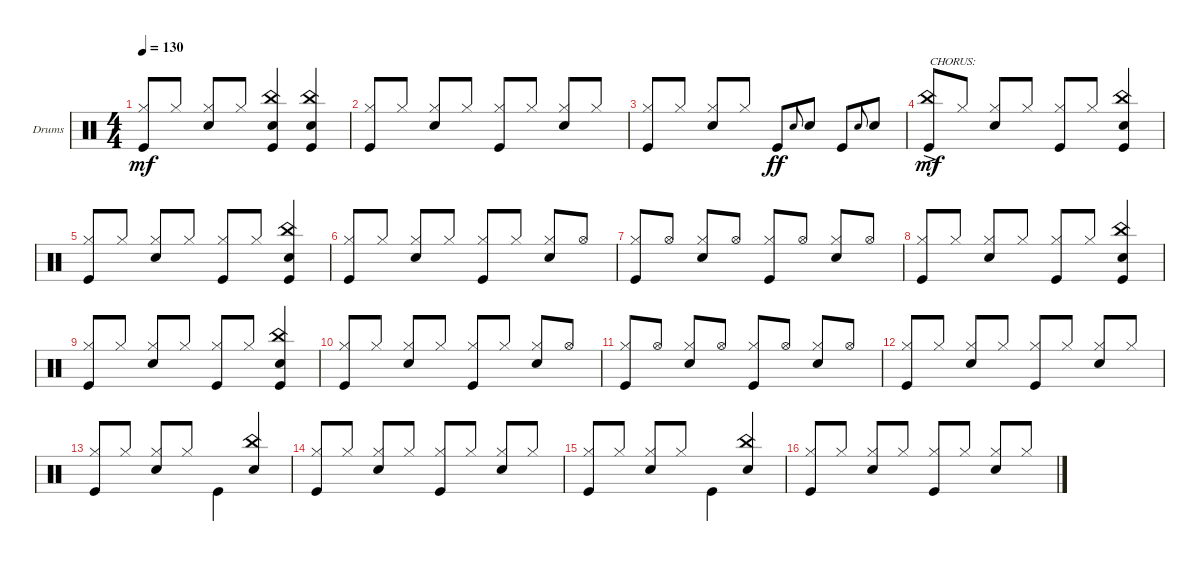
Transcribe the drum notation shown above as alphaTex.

\defaultSystemsLayout 4
\bracketExtendMode groupsimilarinstruments
\firstSystemTrackNameOrientation horizontal
\otherSystemsTrackNameOrientation horizontal
\track ("Drumkit" "Drums") {instrument percussion}
\staff {score}
\articulation defaults
\ts (4 4)
\tempo 130
\clef neutral
\scale
0.333333
\ks c
("Hi-Hat (closed)" "Kick (hit)").8{dy mf beam invert} "Hi-Hat (closed)".8 ("Hi-Hat (closed)" "Snare (hit) 2").8{beam invert} "Hi-Hat (closed)".8 ("Snare (hit) 2" "China (hit)" "Kick (hit)").4{beam invert} ("China (hit)" "Snare (hit) 2" "Kick (hit)").4{beam invert} |
("Hi-Hat (closed)" "Kick (hit)").8{beam invert} "Hi-Hat (closed)".8 ("Hi-Hat (closed)" "Snare (hit) 2").8{beam invert} "Hi-Hat (closed)".8 ("Hi-Hat (closed)" "Kick (hit)").8{beam invert} "Hi-Hat (closed)".8 ("Hi-Hat (closed)" "Snare (hit) 2").8{beam invert} "Hi-Hat (closed)".8 |
("Hi-Hat (closed)" "Kick (hit)").8{beam invert} "Hi-Hat (closed)".8 ("Hi-Hat (closed)" "Snare (hit) 2").8{beam invert} "Hi-Hat (closed)".8 "Kick (hit)".8{dy ff} "Snare (hit) 2".8{gr onbeat} "Snare (hit) 2".8 "Kick (hit)".8 "Snare (hit) 2".8{gr onbeat} "Snare (hit) 2".8 |
\scale
0.333333 ("Kick (hit)" "China (hit)"{ac}).8{txt "CHORUS:" dy mf} "Hi-Hat (closed)".8 ("Hi-Hat (closed)" "Snare (hit) 2").8{beam invert} "Hi-Hat (closed)".8 ("Hi-Hat (closed)" "Kick (hit)").8{beam invert} "Hi-Hat (closed)".8 ("Snare (hit) 2" "China (hit)" "Kick (hit)").4{beam invert} |
\scale
0.333333 ("Hi-Hat (closed)" "Kick (hit)").8{beam invert} "Hi-Hat (closed)".8 ("Hi-Hat (closed)" "Snare (hit) 2").8{beam invert} "Hi-Hat (closed)".8 ("Hi-Hat (closed)" "Kick (hit)").8{beam invert} "Hi-Hat (closed)".8 ("Snare (hit) 2" "China (hit)" "Kick (hit)").4{beam invert} |
\scale
0.333333 ("Hi-Hat (closed)" "Kick (hit)").8{beam invert} "Hi-Hat (closed)".8 ("Hi-Hat (closed)" "Snare (hit) 2").8{beam invert} "Hi-Hat (closed)".8 ("Hi-Hat (closed)" "Kick (hit)").8{beam invert} "Hi-Hat (closed)".8 ("Hi-Hat (closed)" "Snare (hit) 2").8{beam invert} "Hi-Hat (open)".8 |
\scale
0.333333 ("Hi-Hat (closed)" "Kick (hit)").8{beam invert} "Hi-Hat (open)".8 ("Hi-Hat (closed)" "Snare (hit) 2").8{beam invert} "Hi-Hat (open)".8 ("Hi-Hat (closed)" "Kick (hit)").8{beam invert} "Hi-Hat (open)".8 ("Hi-Hat (closed)" "Snare (hit) 2").8{beam invert} "Hi-Hat (open)".8 |
\scale
0.333333 ("Hi-Hat (closed)" "Kick (hit)").8{beam invert} "Hi-Hat (closed)".8 ("Hi-Hat (closed)" "Snare (hit) 2").8{beam invert} "Hi-Hat (closed)".8 ("Hi-Hat (closed)" "Kick (hit)").8{beam invert} "Hi-Hat (closed)".8 ("Snare (hit) 2" "China (hit)" "Kick (hit)").4{beam invert} |
\scale
0.333333 ("Hi-Hat (closed)" "Kick (hit)").8{beam invert} "Hi-Hat (closed)".8 ("Hi-Hat (closed)" "Snare (hit) 2").8{beam invert} "Hi-Hat (closed)".8 ("Hi-Hat (closed)" "Kick (hit)").8{beam invert} "Hi-Hat (closed)".8 ("Snare (hit) 2" "China (hit)" "Kick (hit)").4{beam invert} |
\scale
0.333333 ("Hi-Hat (closed)" "Kick (hit)").8{beam invert} "Hi-Hat (closed)".8 ("Hi-Hat (closed)" "Snare (hit) 2").8{beam invert} "Hi-Hat (closed)".8 ("Hi-Hat (closed)" "Kick (hit)").8{beam invert} "Hi-Hat (closed)".8 ("Hi-Hat (closed)" "Snare (hit) 2").8{beam invert} "Hi-Hat (open)".8 |
\scale
0.333333 ("Hi-Hat (closed)" "Kick (hit)").8{beam invert} "Hi-Hat (open)".8 ("Hi-Hat (closed)" "Snare (hit) 2").8{beam invert} "Hi-Hat (open)".8 ("Hi-Hat (closed)" "Kick (hit)").8{beam invert} "Hi-Hat (open)".8 ("Hi-Hat (closed)" "Snare (hit) 2").8{beam invert} "Hi-Hat (open)".8 |
\scale
0.333333 ("Kick (hit)" "Hi-Hat (closed)").8{beam invert} "Hi-Hat (closed)".8 ("Hi-Hat (closed)" "Snare (hit) 2").8{beam invert} "Hi-Hat (closed)".8 ("Hi-Hat (closed)" "Kick (hit)").8{beam invert} "Hi-Hat (closed)".8 ("Hi-Hat (closed)" "Snare (hit) 2").8{beam invert} "Hi-Hat (closed)".8 |
\scale
0.333333 ("Hi-Hat (closed)" "Kick (hit)").8{beam invert} "Hi-Hat (closed)".8 ("Hi-Hat (closed)" "Snare (hit) 2").8{beam invert} "Hi-Hat (closed)".8 "Kick (hit)".4 ("Snare (hit) 2" "China (hit)").4{beam invert} |
\scale
0.333333 ("Kick (hit)" "Hi-Hat (closed)").8{beam invert} "Hi-Hat (closed)".8 ("Hi-Hat (closed)" "Snare (hit) 2").8{beam invert} "Hi-Hat (closed)".8 ("Hi-Hat (closed)" "Kick (hit)").8{beam invert} "Hi-Hat (closed)".8 ("Hi-Hat (closed)" "Snare (hit) 2").8{beam invert} "Hi-Hat (closed)".8 |
\scale
0.333333 ("Hi-Hat (closed)" "Kick (hit)").8{beam invert} "Hi-Hat (closed)".8 ("Hi-Hat (closed)" "Snare (hit) 2").8{beam invert} "Hi-Hat (closed)".8 "Kick (hit)".4 ("Snare (hit) 2" "China (hit)").4{beam invert} |
\scale
0.333333 ("Kick (hit)" "Hi-Hat (closed)").8{beam invert} "Hi-Hat (closed)".8 ("Hi-Hat (closed)" "Snare (hit) 2").8{beam invert} "Hi-Hat (closed)".8 ("Hi-Hat (closed)" "Kick (hit)").8{beam invert} "Hi-Hat (closed)".8 ("Hi-Hat (closed)" "Snare (hit) 2").8{beam invert} "Hi-Hat (closed)".8
